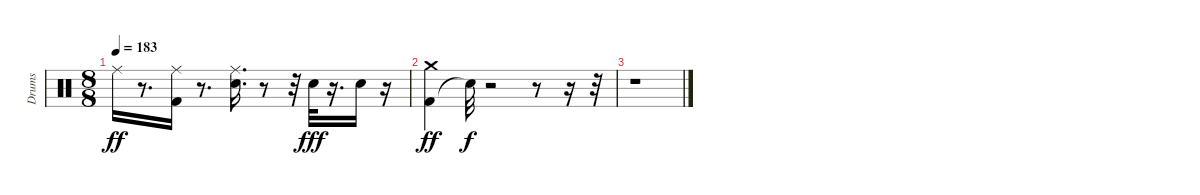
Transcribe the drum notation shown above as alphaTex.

\track ("Drums" "Drums") {instrument percussion}
\staff {score}
\articulation defaults
\ts (8 8)
\tempo 183
\clef neutral
\ks c "Ride (middle)".16{dy ff}
r.8{d} ("Kick (hit) 2" "Ride (middle)").16 r.8{d} ("Snare (hit) 2" "Ride (middle)").16{d} r.8 r.32 "Snare (hit) 2".32{dy fff} r.16{d} "Snare (hit) 2".16 r.16 |
("Kick (hit) 2" "Crash medium (hit)").4{dy ff} "Snare (hit)"{t}.32{dy f} r.2 r.8 r.16 r.32 |
r.1
